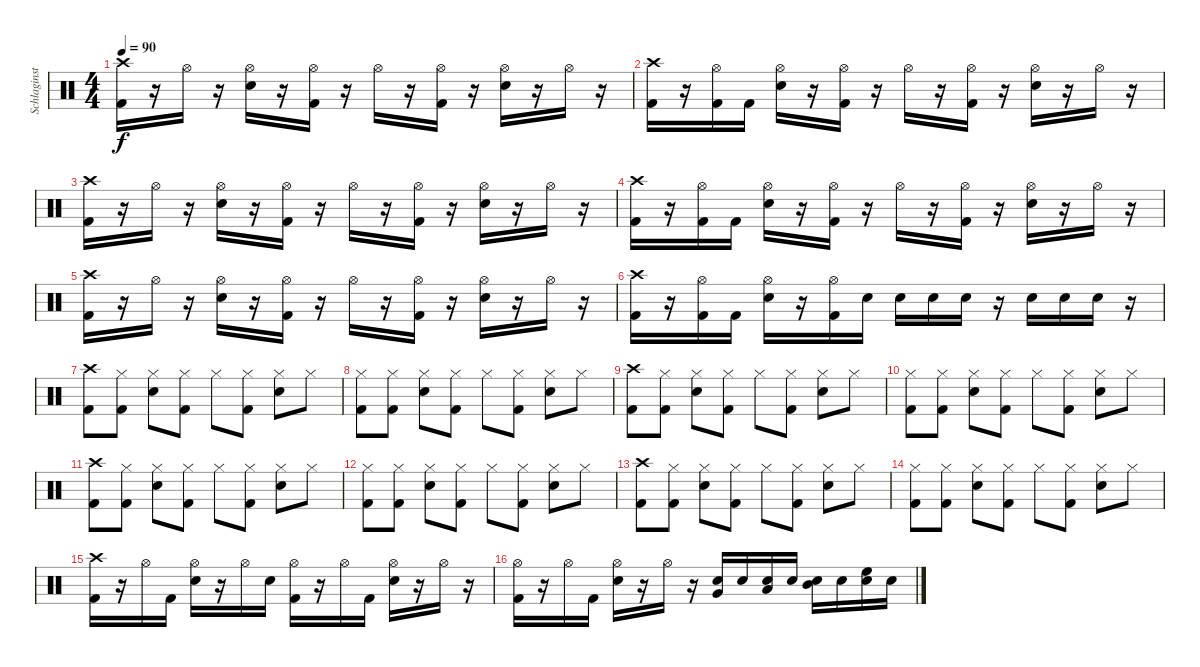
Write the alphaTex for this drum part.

\track ("Schlaginstrumente - Auswahl" "Schlaginst") {instrument percussion}
\staff {score}
\articulation defaults
\ts (4 4)
\tempo 90
\clef neutral
\ks c
("Crash high (hit)" "Kick (hit) 2").16{dy f} r.16 "Hi-Hat (open)".16 r.16 ("Hi-Hat (open)" "Snare (hit) 2").16 r.16 ("Hi-Hat (open)" "Kick (hit) 2").16 r.16 "Hi-Hat (open)".16 r.16 ("Hi-Hat (open)" "Kick (hit) 2").16 r.16 ("Hi-Hat (open)" "Snare (hit) 2").16 r.16 "Hi-Hat (open)".16 r.16 |
("Crash high (hit)" "Kick (hit) 2").16 r.16 ("Hi-Hat (open)" "Kick (hit) 2").16 "Kick (hit) 2".16 ("Hi-Hat (open)" "Snare (hit) 2").16 r.16 ("Hi-Hat (open)" "Kick (hit) 2").16 r.16 "Hi-Hat (open)".16 r.16 ("Hi-Hat (open)" "Kick (hit) 2").16 r.16 ("Hi-Hat (open)" "Snare (hit) 2").16 r.16 "Hi-Hat (open)".16 r.16 |
("Crash high (hit)" "Kick (hit) 2").16 r.16 "Hi-Hat (open)".16 r.16 ("Hi-Hat (open)" "Snare (hit) 2").16 r.16 ("Hi-Hat (open)" "Kick (hit) 2").16 r.16 "Hi-Hat (open)".16 r.16 ("Hi-Hat (open)" "Kick (hit) 2").16 r.16 ("Hi-Hat (open)" "Snare (hit) 2").16 r.16 "Hi-Hat (open)".16 r.16 |
("Crash high (hit)" "Kick (hit) 2").16 r.16 ("Hi-Hat (open)" "Kick (hit) 2").16 "Kick (hit) 2".16 ("Hi-Hat (open)" "Snare (hit) 2").16 r.16 ("Hi-Hat (open)" "Kick (hit) 2").16 r.16 "Hi-Hat (open)".16 r.16 ("Hi-Hat (open)" "Kick (hit) 2").16 r.16 ("Hi-Hat (open)" "Snare (hit) 2").16 r.16 "Hi-Hat (open)".16 r.16 |
("Crash high (hit)" "Kick (hit) 2").16 r.16 "Hi-Hat (open)".16 r.16 ("Hi-Hat (open)" "Snare (hit) 2").16 r.16 ("Hi-Hat (open)" "Kick (hit) 2").16 r.16 "Hi-Hat (open)".16 r.16 ("Hi-Hat (open)" "Kick (hit) 2").16 r.16 ("Hi-Hat (open)" "Snare (hit) 2").16 r.16 "Hi-Hat (open)".16 r.16 |
("Crash high (hit)" "Kick (hit) 2").16 r.16 ("Hi-Hat (open)" "Kick (hit) 2").16 "Kick (hit) 2".16 ("Hi-Hat (open)" "Snare (hit) 2").16 r.16 ("Hi-Hat (open)" "Kick (hit) 2").16 "Snare (hit) 2".16 "Snare (hit) 2".16 "Snare (hit) 2".16 "Snare (hit) 2".16 r.16 "Snare (hit) 2".16 "Snare (hit) 2".16 "Snare (hit) 2".16 r.16 |
("Crash high (hit)" "Kick (hit) 2").8 ("Hi-Hat (closed)" "Kick (hit) 2").8 ("Hi-Hat (closed)" "Snare (hit) 2").8 ("Hi-Hat (closed)" "Kick (hit) 2").8 "Hi-Hat (closed)".8 ("Hi-Hat (closed)" "Kick (hit) 2").8 ("Hi-Hat (closed)" "Snare (hit) 2").8 "Hi-Hat (closed)".8 |
("Hi-Hat (closed)" "Kick (hit) 2").8 ("Hi-Hat (closed)" "Kick (hit) 2").8 ("Hi-Hat (closed)" "Snare (hit) 2").8 ("Hi-Hat (closed)" "Kick (hit) 2").8 "Hi-Hat (closed)".8 ("Hi-Hat (closed)" "Kick (hit) 2").8 ("Hi-Hat (closed)" "Snare (hit) 2").8 "Hi-Hat (closed)".8 |
("Crash high (hit)" "Kick (hit) 2").8 ("Hi-Hat (closed)" "Kick (hit) 2").8 ("Hi-Hat (closed)" "Snare (hit) 2").8 ("Hi-Hat (closed)" "Kick (hit) 2").8 "Hi-Hat (closed)".8 ("Hi-Hat (closed)" "Kick (hit) 2").8 ("Hi-Hat (closed)" "Snare (hit) 2").8 "Hi-Hat (closed)".8 |
("Hi-Hat (closed)" "Kick (hit) 2").8 ("Hi-Hat (closed)" "Kick (hit) 2").8 ("Hi-Hat (closed)" "Snare (hit) 2").8 ("Hi-Hat (closed)" "Kick (hit) 2").8 "Hi-Hat (closed)".8 ("Hi-Hat (closed)" "Kick (hit) 2").8 ("Hi-Hat (closed)" "Snare (hit) 2").8 "Hi-Hat (closed)".8 |
("Crash high (hit)" "Kick (hit) 2").8 ("Hi-Hat (closed)" "Kick (hit) 2").8 ("Hi-Hat (closed)" "Snare (hit) 2").8 ("Hi-Hat (closed)" "Kick (hit) 2").8 "Hi-Hat (closed)".8 ("Hi-Hat (closed)" "Kick (hit) 2").8 ("Hi-Hat (closed)" "Snare (hit) 2").8 "Hi-Hat (closed)".8 |
("Hi-Hat (closed)" "Kick (hit) 2").8 ("Hi-Hat (closed)" "Kick (hit) 2").8 ("Hi-Hat (closed)" "Snare (hit) 2").8 ("Hi-Hat (closed)" "Kick (hit) 2").8 "Hi-Hat (closed)".8 ("Hi-Hat (closed)" "Kick (hit) 2").8 ("Hi-Hat (closed)" "Snare (hit) 2").8 "Hi-Hat (closed)".8 |
("Crash high (hit)" "Kick (hit) 2").8 ("Hi-Hat (closed)" "Kick (hit) 2").8 ("Hi-Hat (closed)" "Snare (hit) 2").8 ("Hi-Hat (closed)" "Kick (hit) 2").8 "Hi-Hat (closed)".8 ("Hi-Hat (closed)" "Kick (hit) 2").8 ("Hi-Hat (closed)" "Snare (hit) 2").8 "Hi-Hat (closed)".8 |
("Hi-Hat (closed)" "Kick (hit) 2").8 ("Hi-Hat (closed)" "Kick (hit) 2").8 ("Hi-Hat (closed)" "Snare (hit) 2").8 ("Hi-Hat (closed)" "Kick (hit) 2").8 "Hi-Hat (closed)".8 ("Hi-Hat (closed)" "Kick (hit) 2").8 ("Hi-Hat (closed)" "Snare (hit) 2").8 "Hi-Hat (closed)".8 |
("Crash high (hit)" "Kick (hit) 2").16 r.16 "Hi-Hat (open)".16 "Kick (hit) 2".16 ("Hi-Hat (open)" "Snare (hit) 2").16 r.16 "Hi-Hat (open)".16 "Snare (hit) 2".16 ("Hi-Hat (open)" "Kick (hit) 2").16 r.16 "Hi-Hat (open)".16 "Kick (hit) 2".16 ("Hi-Hat (open)" "Snare (hit) 2").16 r.16 "Hi-Hat (open)".16 r.16 |
("Hi-Hat (open)" "Kick (hit) 2").16 r.16 "Hi-Hat (open)".16 "Kick (hit) 2".16 ("Hi-Hat (open)" "Snare (hit) 2").16 r.16 "Hi-Hat (open)".16 r.16 ("Very Low Tom (hit)" "Snare (hit) 2").16 "Snare (hit) 2".16 ("Low Tom (hit)" "Snare (hit) 2").16 "Snare (hit) 2".16 ("Mid Tom (hit)" "Snare (hit) 2").16 "Snare (hit) 2".16 ("High Floor Tom (hit)" "Snare (hit) 2").16 "Snare (hit) 2".16
